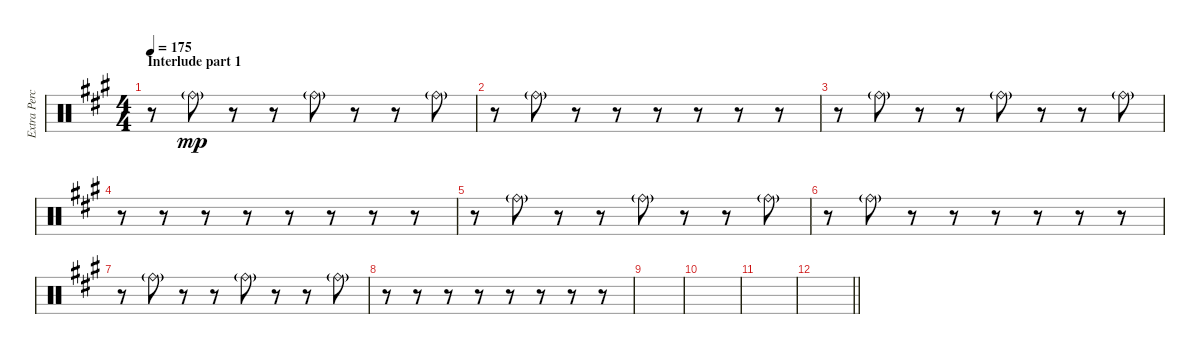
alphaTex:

\track ("Extra Percussion" "Extra Perc") {instrument percussion}
\staff {score}
\articulation defaults
\ts (4 4)
\section ("" "Interlude part 1")
\tempo 175
\clef neutral
\ks f#minor
r.8{dy mp} "Ride (bell)"{g}.8 r.8 r.8 "Ride (bell)"{g}.8 r.8 r.8 "Ride (bell)"{g}.8 |
r.8 "Ride (bell)"{g}.8 r.8 r.8 r.8 r.8 r.8 r.8 |
r.8 "Ride (bell)"{g}.8 r.8 r.8 "Ride (bell)"{g}.8 r.8 r.8 "Ride (bell)"{g}.8 |
r.8 r.8 r.8 r.8 r.8 r.8 r.8 r.8 |
r.8 "Ride (bell)"{g}.8 r.8 r.8 "Ride (bell)"{g}.8 r.8 r.8 "Ride (bell)"{g}.8 |
r.8 "Ride (bell)"{g}.8 r.8 r.8 r.8 r.8 r.8 r.8 |
r.8 "Ride (bell)"{g}.8 r.8 r.8 "Ride (bell)"{g}.8 r.8 r.8 "Ride (bell)"{g}.8 |
r.8 r.8 r.8 r.8 r.8 r.8 r.8 r.8 |
|
|
|
\barLineRight lightlight
